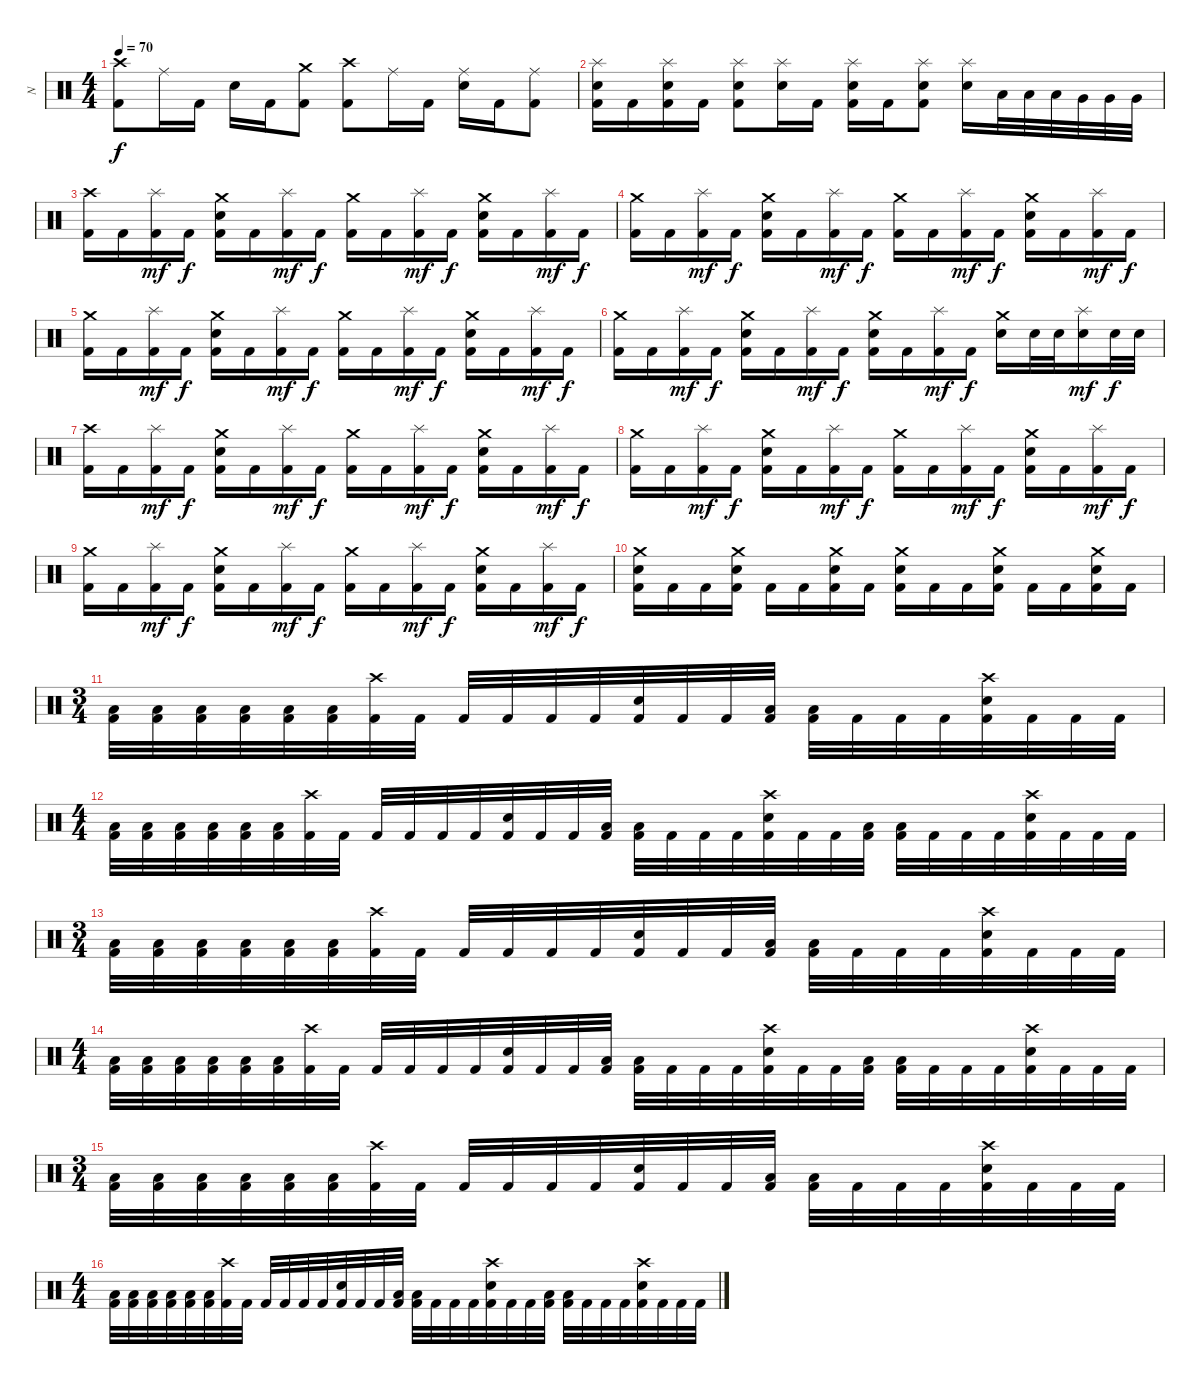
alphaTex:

\track ("N" "N") {instrument percussion}
\staff {score}
\articulation defaults
\ts (4 4)
\tempo 70
\clef neutral
\ks c
("Crash high (hit)" "Kick (hit) 2").8{dy f} "Ride (middle)".16 "Kick (hit) 2".16 "Electric Snare (hit)".16 "Kick (hit) 2".16 ("Crash medium (hit)" "Kick (hit) 2").8 ("Crash high (hit)" "Kick (hit) 2").8 "Ride (middle)".16 "Kick (hit) 2".16 ("Ride (middle)" "Electric Snare (hit)").16 "Kick (hit) 2".16 ("Ride (middle)" "Kick (hit) 2").8 |
("Splash (hit)" "Electric Snare (hit)" "Kick (hit) 2").16 "Kick (hit) 2".16 ("Splash (hit)" "Electric Snare (hit)" "Kick (hit) 2").16 "Kick (hit) 2".16 ("Splash (hit)" "Electric Snare (hit)" "Kick (hit) 2").8 ("Splash (hit)" "Electric Snare (hit)").16 "Kick (hit) 2".16 ("Splash (hit)" "Electric Snare (hit)" "Kick (hit) 2").16 "Kick (hit) 2".16 ("Splash (hit)" "Electric Snare (hit)" "Kick (hit) 2").8 ("Splash (hit)" "Electric Snare (hit)").16 "Low Tom (hit)".32 "Low Tom (hit)".32 "Low Tom (hit)".32 "Very Low Tom (hit)".32 "Very Low Tom (hit)".32 "Very Low Tom (hit)".32 |
\section ("" " ")
("Crash high (hit)" "Kick (hit) 2").16 "Kick (hit) 2".16 ("Splash (hit)" "Kick (hit) 2").16{dy mf} "Kick (hit) 2".16{dy f} ("Crash medium (hit)" "Electric Snare (hit)" "Kick (hit) 2").16 "Kick (hit) 2".16 ("Splash (hit)" "Kick (hit) 2").16{dy mf} "Kick (hit) 2".16{dy f} ("Crash medium (hit)" "Kick (hit) 2").16 "Kick (hit) 2".16 ("Splash (hit)" "Kick (hit) 2").16{dy mf} "Kick (hit) 2".16{dy f} ("Crash medium (hit)" "Electric Snare (hit)" "Kick (hit) 2").16 "Kick (hit) 2".16 ("Splash (hit)" "Kick (hit) 2").16{dy mf} "Kick (hit) 2".16{dy f} |
("Crash medium (hit)" "Kick (hit) 2").16 "Kick (hit) 2".16 ("Splash (hit)" "Kick (hit) 2").16{dy mf} "Kick (hit) 2".16{dy f} ("Crash medium (hit)" "Electric Snare (hit)" "Kick (hit) 2").16 "Kick (hit) 2".16 ("Splash (hit)" "Kick (hit) 2").16{dy mf} "Kick (hit) 2".16{dy f} ("Crash medium (hit)" "Kick (hit) 2").16 "Kick (hit) 2".16 ("Splash (hit)" "Kick (hit) 2").16{dy mf} "Kick (hit) 2".16{dy f} ("Crash medium (hit)" "Electric Snare (hit)" "Kick (hit) 2").16 "Kick (hit) 2".16 ("Splash (hit)" "Kick (hit) 2").16{dy mf} "Kick (hit) 2".16{dy f} |
("Crash medium (hit)" "Kick (hit) 2").16 "Kick (hit) 2".16 ("Splash (hit)" "Kick (hit) 2").16{dy mf} "Kick (hit) 2".16{dy f} ("Crash medium (hit)" "Electric Snare (hit)" "Kick (hit) 2").16 "Kick (hit) 2".16 ("Splash (hit)" "Kick (hit) 2").16{dy mf} "Kick (hit) 2".16{dy f} ("Crash medium (hit)" "Kick (hit) 2").16 "Kick (hit) 2".16 ("Splash (hit)" "Kick (hit) 2").16{dy mf} "Kick (hit) 2".16{dy f} ("Crash medium (hit)" "Electric Snare (hit)" "Kick (hit) 2").16 "Kick (hit) 2".16 ("Splash (hit)" "Kick (hit) 2").16{dy mf} "Kick (hit) 2".16{dy f} |
("Crash medium (hit)" "Kick (hit) 2").16 "Kick (hit) 2".16 ("Splash (hit)" "Kick (hit) 2").16{dy mf} "Kick (hit) 2".16{dy f} ("Crash medium (hit)" "Electric Snare (hit)" "Kick (hit) 2").16 "Kick (hit) 2".16 ("Splash (hit)" "Kick (hit) 2").16{dy mf} "Kick (hit) 2".16{dy f} ("Crash medium (hit)" "Electric Snare (hit)" "Kick (hit) 2").16 "Kick (hit) 2".16 ("Splash (hit)" "Kick (hit) 2").16{dy mf} "Kick (hit) 2".16{dy f} ("Crash medium (hit)" "Electric Snare (hit)").16 "Electric Snare (hit)".32 "Electric Snare (hit)".32 ("Splash (hit)" "Electric Snare (hit)").16{dy mf} "Electric Snare (hit)".32{dy f} "Electric Snare (hit)".32 |
("Crash high (hit)" "Kick (hit) 2").16 "Kick (hit) 2".16 ("Splash (hit)" "Kick (hit) 2").16{dy mf} "Kick (hit) 2".16{dy f} ("Crash medium (hit)" "Electric Snare (hit)" "Kick (hit) 2").16 "Kick (hit) 2".16 ("Splash (hit)" "Kick (hit) 2").16{dy mf} "Kick (hit) 2".16{dy f} ("Crash medium (hit)" "Kick (hit) 2").16 "Kick (hit) 2".16 ("Splash (hit)" "Kick (hit) 2").16{dy mf} "Kick (hit) 2".16{dy f} ("Crash medium (hit)" "Electric Snare (hit)" "Kick (hit) 2").16 "Kick (hit) 2".16 ("Splash (hit)" "Kick (hit) 2").16{dy mf} "Kick (hit) 2".16{dy f} |
("Crash medium (hit)" "Kick (hit) 2").16 "Kick (hit) 2".16 ("Splash (hit)" "Kick (hit) 2").16{dy mf} "Kick (hit) 2".16{dy f} ("Crash medium (hit)" "Electric Snare (hit)" "Kick (hit) 2").16 "Kick (hit) 2".16 ("Splash (hit)" "Kick (hit) 2").16{dy mf} "Kick (hit) 2".16{dy f} ("Crash medium (hit)" "Kick (hit) 2").16 "Kick (hit) 2".16 ("Splash (hit)" "Kick (hit) 2").16{dy mf} "Kick (hit) 2".16{dy f} ("Crash medium (hit)" "Electric Snare (hit)" "Kick (hit) 2").16 "Kick (hit) 2".16 ("Splash (hit)" "Kick (hit) 2").16{dy mf} "Kick (hit) 2".16{dy f} |
("Crash medium (hit)" "Kick (hit) 2").16 "Kick (hit) 2".16 ("Splash (hit)" "Kick (hit) 2").16{dy mf} "Kick (hit) 2".16{dy f} ("Crash medium (hit)" "Electric Snare (hit)" "Kick (hit) 2").16 "Kick (hit) 2".16 ("Splash (hit)" "Kick (hit) 2").16{dy mf} "Kick (hit) 2".16{dy f} ("Crash medium (hit)" "Kick (hit) 2").16 "Kick (hit) 2".16 ("Splash (hit)" "Kick (hit) 2").16{dy mf} "Kick (hit) 2".16{dy f} ("Crash medium (hit)" "Electric Snare (hit)" "Kick (hit) 2").16 "Kick (hit) 2".16 ("Splash (hit)" "Kick (hit) 2").16{dy mf} "Kick (hit) 2".16{dy f} |
("Crash medium (hit)" "Electric Snare (hit)" "Kick (hit) 2").16 "Kick (hit) 2".16 "Kick (hit) 2".16 ("Crash medium (hit)" "Electric Snare (hit)" "Kick (hit) 2").16 "Kick (hit) 2".16 "Kick (hit) 2".16 ("Crash medium (hit)" "Electric Snare (hit)" "Kick (hit) 2").16 "Kick (hit) 2".16 ("Crash medium (hit)" "Electric Snare (hit)" "Kick (hit) 2").16 "Kick (hit) 2".16 "Kick (hit) 2".16 ("Crash medium (hit)" "Electric Snare (hit)" "Kick (hit) 2").16 "Kick (hit) 2".16 "Kick (hit) 2".16 ("Crash medium (hit)" "Electric Snare (hit)" "Kick (hit) 2").16 "Kick (hit) 2".16 |
\ts (3 4)
\section ("" " ")
("Low Tom (hit)" "Kick (hit) 2").32 ("Low Tom (hit)" "Kick (hit) 2").32 ("Low Tom (hit)" "Kick (hit) 2").32 ("Low Tom (hit)" "Kick (hit) 2").32 ("Low Tom (hit)" "Kick (hit) 2").32 ("Low Tom (hit)" "Kick (hit) 2").32 ("Crash high (hit)" "Kick (hit) 2").32 "Kick (hit) 2".32 "Kick (hit) 2".32 "Kick (hit) 2".32 "Kick (hit) 2".32 "Kick (hit) 2".32 ("Electric Snare (hit)" "Kick (hit) 2").32 "Kick (hit) 2".32 "Kick (hit) 2".32 ("Low Tom (hit)" "Kick (hit) 2").32 ("Low Tom (hit)" "Kick (hit) 2").32 "Kick (hit) 2".32 "Kick (hit) 2".32 "Kick (hit) 2".32 ("Crash high (hit)" "Electric Snare (hit)" "Kick (hit) 2").32 "Kick (hit) 2".32 "Kick (hit) 2".32 "Kick (hit) 2".32 |
\ts (4 4)
("Low Tom (hit)" "Kick (hit) 2").32 ("Low Tom (hit)" "Kick (hit) 2").32 ("Low Tom (hit)" "Kick (hit) 2").32 ("Low Tom (hit)" "Kick (hit) 2").32 ("Low Tom (hit)" "Kick (hit) 2").32 ("Low Tom (hit)" "Kick (hit) 2").32 ("Crash high (hit)" "Kick (hit) 2").32 "Kick (hit) 2".32 "Kick (hit) 2".32 "Kick (hit) 2".32 "Kick (hit) 2".32 "Kick (hit) 2".32 ("Electric Snare (hit)" "Kick (hit) 2").32 "Kick (hit) 2".32 "Kick (hit) 2".32 ("Low Tom (hit)" "Kick (hit) 2").32 ("Low Tom (hit)" "Kick (hit) 2").32 "Kick (hit) 2".32 "Kick (hit) 2".32 "Kick (hit) 2".32 ("Crash high (hit)" "Electric Snare (hit)" "Kick (hit) 2").32 "Kick (hit) 2".32 "Kick (hit) 2".32 ("Low Tom (hit)" "Kick (hit) 2").32 ("Low Tom (hit)" "Kick (hit) 2").32 "Kick (hit) 2".32 "Kick (hit) 2".32 "Kick (hit) 2".32 ("Crash high (hit)" "Electric Snare (hit)" "Kick (hit) 2").32 "Kick (hit) 2".32 "Kick (hit) 2".32 "Kick (hit) 2".32 |
\ts (3 4)
("Low Tom (hit)" "Kick (hit) 2").32 ("Low Tom (hit)" "Kick (hit) 2").32 ("Low Tom (hit)" "Kick (hit) 2").32 ("Low Tom (hit)" "Kick (hit) 2").32 ("Low Tom (hit)" "Kick (hit) 2").32 ("Low Tom (hit)" "Kick (hit) 2").32 ("Crash high (hit)" "Kick (hit) 2").32 "Kick (hit) 2".32 "Kick (hit) 2".32 "Kick (hit) 2".32 "Kick (hit) 2".32 "Kick (hit) 2".32 ("Electric Snare (hit)" "Kick (hit) 2").32 "Kick (hit) 2".32 "Kick (hit) 2".32 ("Low Tom (hit)" "Kick (hit) 2").32 ("Low Tom (hit)" "Kick (hit) 2").32 "Kick (hit) 2".32 "Kick (hit) 2".32 "Kick (hit) 2".32 ("Crash high (hit)" "Electric Snare (hit)" "Kick (hit) 2").32 "Kick (hit) 2".32 "Kick (hit) 2".32 "Kick (hit) 2".32 |
\ts (4 4)
("Low Tom (hit)" "Kick (hit) 2").32 ("Low Tom (hit)" "Kick (hit) 2").32 ("Low Tom (hit)" "Kick (hit) 2").32 ("Low Tom (hit)" "Kick (hit) 2").32 ("Low Tom (hit)" "Kick (hit) 2").32 ("Low Tom (hit)" "Kick (hit) 2").32 ("Crash high (hit)" "Kick (hit) 2").32 "Kick (hit) 2".32 "Kick (hit) 2".32 "Kick (hit) 2".32 "Kick (hit) 2".32 "Kick (hit) 2".32 ("Electric Snare (hit)" "Kick (hit) 2").32 "Kick (hit) 2".32 "Kick (hit) 2".32 ("Low Tom (hit)" "Kick (hit) 2").32 ("Low Tom (hit)" "Kick (hit) 2").32 "Kick (hit) 2".32 "Kick (hit) 2".32 "Kick (hit) 2".32 ("Crash high (hit)" "Electric Snare (hit)" "Kick (hit) 2").32 "Kick (hit) 2".32 "Kick (hit) 2".32 ("Low Tom (hit)" "Kick (hit) 2").32 ("Low Tom (hit)" "Kick (hit) 2").32 "Kick (hit) 2".32 "Kick (hit) 2".32 "Kick (hit) 2".32 ("Crash high (hit)" "Electric Snare (hit)" "Kick (hit) 2").32 "Kick (hit) 2".32 "Kick (hit) 2".32 "Kick (hit) 2".32 |
\ts (3 4)
("Low Tom (hit)" "Kick (hit) 2").32 ("Low Tom (hit)" "Kick (hit) 2").32 ("Low Tom (hit)" "Kick (hit) 2").32 ("Low Tom (hit)" "Kick (hit) 2").32 ("Low Tom (hit)" "Kick (hit) 2").32 ("Low Tom (hit)" "Kick (hit) 2").32 ("Crash high (hit)" "Kick (hit) 2").32 "Kick (hit) 2".32 "Kick (hit) 2".32 "Kick (hit) 2".32 "Kick (hit) 2".32 "Kick (hit) 2".32 ("Electric Snare (hit)" "Kick (hit) 2").32 "Kick (hit) 2".32 "Kick (hit) 2".32 ("Low Tom (hit)" "Kick (hit) 2").32 ("Low Tom (hit)" "Kick (hit) 2").32 "Kick (hit) 2".32 "Kick (hit) 2".32 "Kick (hit) 2".32 ("Crash high (hit)" "Electric Snare (hit)" "Kick (hit) 2").32 "Kick (hit) 2".32 "Kick (hit) 2".32 "Kick (hit) 2".32 |
\ts (4 4)
("Low Tom (hit)" "Kick (hit) 2").32 ("Low Tom (hit)" "Kick (hit) 2").32 ("Low Tom (hit)" "Kick (hit) 2").32 ("Low Tom (hit)" "Kick (hit) 2").32 ("Low Tom (hit)" "Kick (hit) 2").32 ("Low Tom (hit)" "Kick (hit) 2").32 ("Crash high (hit)" "Kick (hit) 2").32 "Kick (hit) 2".32 "Kick (hit) 2".32 "Kick (hit) 2".32 "Kick (hit) 2".32 "Kick (hit) 2".32 ("Electric Snare (hit)" "Kick (hit) 2").32 "Kick (hit) 2".32 "Kick (hit) 2".32 ("Low Tom (hit)" "Kick (hit) 2").32 ("Low Tom (hit)" "Kick (hit) 2").32 "Kick (hit) 2".32 "Kick (hit) 2".32 "Kick (hit) 2".32 ("Crash high (hit)" "Electric Snare (hit)" "Kick (hit) 2").32 "Kick (hit) 2".32 "Kick (hit) 2".32 ("Low Tom (hit)" "Kick (hit) 2").32 ("Low Tom (hit)" "Kick (hit) 2").32 "Kick (hit) 2".32 "Kick (hit) 2".32 "Kick (hit) 2".32 ("Crash high (hit)" "Electric Snare (hit)" "Kick (hit) 2").32 "Kick (hit) 2".32 "Kick (hit) 2".32 "Kick (hit) 2".32
